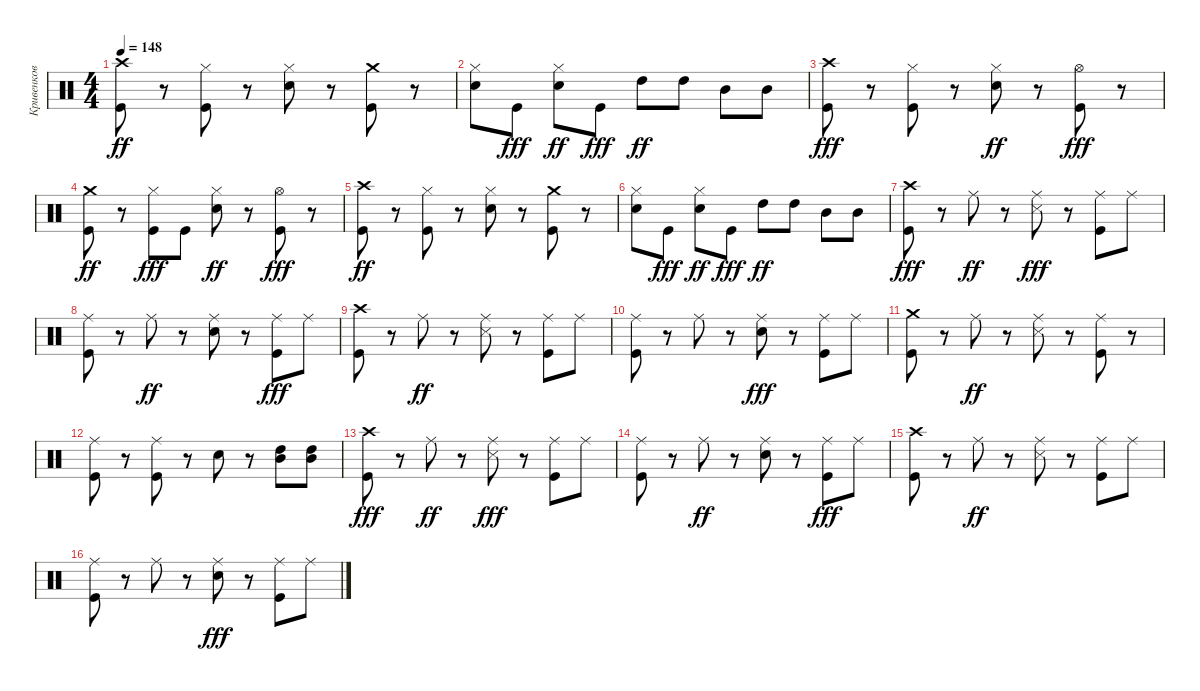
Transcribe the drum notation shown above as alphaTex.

\track ("Кривенков" "Кривенков") {instrument percussion}
\staff {score}
\articulation defaults
\ts (4 4)
\tempo 148
\clef neutral
\ks c
("Kick (hit)" "Crash high (hit)").8{dy ff} r.8 ("Kick (hit)" "Hi-Hat (closed)").8 r.8 ("Snare (hit) 2" "Hi-Hat (closed)").8 r.8 ("Kick (hit)" "Crash medium (hit)").8 r.8 |
("Hi-Hat (closed)" "Snare (hit) 2").8 "Kick (hit)".8{dy fff} ("Hi-Hat (closed)" "Snare (hit) 2").8{dy ff} "Kick (hit)".8{dy fff} "High Tom (hit)".8{dy ff} "High Tom (hit)".8 "Mid Tom (hit)".8 "Mid Tom (hit)".8 |
("Crash high (hit)" "Kick (hit)").8{dy fff} r.8 ("Hi-Hat (closed)" "Kick (hit)").8 r.8 ("Hi-Hat (closed)" "Snare (hit) 2").8{dy ff} r.8 ("Hi-Hat (open)" "Kick (hit)").8{dy fff} r.8 |
("Kick (hit)" "Crash medium (hit)").8{dy ff} r.8 ("Hi-Hat (closed)" "Kick (hit)").8{dy fff} "Kick (hit)".8 ("Hi-Hat (closed)" "Snare (hit) 2").8{dy ff} r.8 ("Hi-Hat (open)" "Kick (hit)").8{dy fff} r.8 |
("Kick (hit)" "Crash high (hit)").8{dy ff} r.8 ("Kick (hit)" "Hi-Hat (closed)").8 r.8 ("Snare (hit) 2" "Hi-Hat (closed)").8 r.8 ("Kick (hit)" "Crash medium (hit)").8 r.8 |
("Hi-Hat (closed)" "Snare (hit) 2").8 "Kick (hit)".8{dy fff} ("Hi-Hat (closed)" "Snare (hit) 2").8{dy ff} "Kick (hit)".8{dy fff} "High Tom (hit)".8{dy ff} "High Tom (hit)".8 "Mid Tom (hit)".8 "Mid Tom (hit)".8 |
("Kick (hit)" "Crash high (hit)").8{dy fff} r.8 "Ride (middle)".8{dy ff} r.8 ("Snare (side stick) 3" "Ride (middle)").8{dy fff} r.8 ("Kick (hit)" "Ride (middle)").8 "Ride (middle)".8 |
("Kick (hit)" "Ride (middle)").8 r.8 "Ride (middle)".8{dy ff} r.8 ("Ride (middle)" "Snare (hit) 2").8 r.8 ("Kick (hit)" "Ride (middle)").8{dy fff} "Ride (middle)".8 |
("Kick (hit)" "Crash high (hit)").8 r.8 "Ride (middle)".8{dy ff} r.8 ("Ride (middle)" "Snare (side stick) 3").8 r.8 ("Kick (hit)" "Ride (middle)").8 "Ride (middle)".8 |
("Kick (hit)" "Ride (middle)").8 r.8 "Ride (middle)".8 r.8 ("Ride (middle)" "Snare (hit) 2").8{dy fff} r.8 ("Ride (middle)" "Kick (hit)").8 "Ride (middle)".8 |
("Crash medium (hit)" "Kick (hit)").8 r.8 "Ride (middle)".8{dy ff} r.8 ("Snare (side stick) 3" "Ride (middle)").8 r.8 ("Kick (hit)" "Ride (middle)").8 r.8 |
("Kick (hit)" "Ride (middle)").8 r.8 ("Kick (hit)" "Ride (middle)").8 r.8 "Snare (hit) 2".8 r.8 ("Mid Tom (hit)" "High Tom (hit)").8 ("Mid Tom (hit)" "High Tom (hit)").8 |
("Kick (hit)" "Crash high (hit)").8{dy fff} r.8 "Ride (middle)".8{dy ff} r.8 ("Snare (side stick) 3" "Ride (middle)").8{dy fff} r.8 ("Kick (hit)" "Ride (middle)").8 "Ride (middle)".8 |
("Kick (hit)" "Ride (middle)").8 r.8 "Ride (middle)".8{dy ff} r.8 ("Ride (middle)" "Snare (hit) 2").8 r.8 ("Kick (hit)" "Ride (middle)").8{dy fff} "Ride (middle)".8 |
("Kick (hit)" "Crash high (hit)").8 r.8 "Ride (middle)".8{dy ff} r.8 ("Ride (middle)" "Snare (side stick) 3").8 r.8 ("Kick (hit)" "Ride (middle)").8 "Ride (middle)".8 |
("Kick (hit)" "Ride (middle)").8 r.8 "Ride (middle)".8 r.8 ("Ride (middle)" "Snare (hit) 2").8{dy fff} r.8 ("Ride (middle)" "Kick (hit)").8 "Ride (middle)".8
